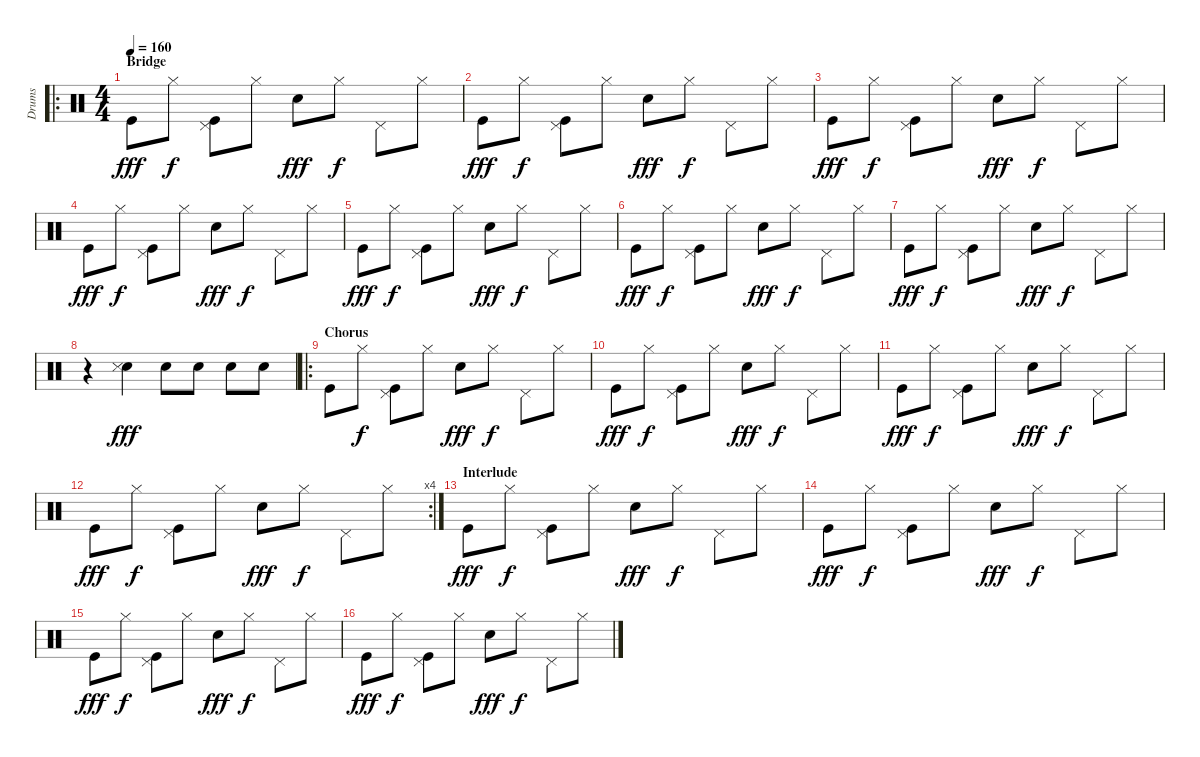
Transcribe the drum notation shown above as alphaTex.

\track ("Drums" "Drums") {instrument percussion}
\staff {score}
\articulation defaults
\ro
\ts (4 4)
\section ("" "Bridge")
\tempo 160
\clef neutral
\ks c "Kick (hit)".8{dy fff} "Hi-Hat (closed)".8{dy f}
("Kick (hit)" "Pedal Hi-Hat (hit)").8 "Hi-Hat (closed)".8 "Snare (hit) 2".8{dy fff} "Hi-Hat (closed)".8{dy f} "Pedal Hi-Hat (hit)".8 "Hi-Hat (closed)".8 |
"Kick (hit)".8{dy fff} "Hi-Hat (closed)".8{dy f} ("Kick (hit)" "Pedal Hi-Hat (hit)").8 "Hi-Hat (closed)".8 "Snare (hit) 2".8{dy fff} "Hi-Hat (closed)".8{dy f} "Pedal Hi-Hat (hit)".8 "Hi-Hat (closed)".8 |
"Kick (hit)".8{dy fff} "Hi-Hat (closed)".8{dy f} ("Kick (hit)" "Pedal Hi-Hat (hit)").8 "Hi-Hat (closed)".8 "Snare (hit) 2".8{dy fff} "Hi-Hat (closed)".8{dy f} "Pedal Hi-Hat (hit)".8 "Hi-Hat (closed)".8 |
"Kick (hit)".8{dy fff} "Hi-Hat (closed)".8{dy f} ("Kick (hit)" "Pedal Hi-Hat (hit)").8 "Hi-Hat (closed)".8 "Snare (hit) 2".8{dy fff} "Hi-Hat (closed)".8{dy f} "Pedal Hi-Hat (hit)".8 "Hi-Hat (closed)".8 |
"Kick (hit)".8{dy fff} "Hi-Hat (closed)".8{dy f} ("Kick (hit)" "Pedal Hi-Hat (hit)").8 "Hi-Hat (closed)".8 "Snare (hit) 2".8{dy fff} "Hi-Hat (closed)".8{dy f} "Pedal Hi-Hat (hit)".8 "Hi-Hat (closed)".8 |
"Kick (hit)".8{dy fff} "Hi-Hat (closed)".8{dy f} ("Kick (hit)" "Pedal Hi-Hat (hit)").8 "Hi-Hat (closed)".8 "Snare (hit) 2".8{dy fff} "Hi-Hat (closed)".8{dy f} "Pedal Hi-Hat (hit)".8 "Hi-Hat (closed)".8 |
"Kick (hit)".8{dy fff} "Hi-Hat (closed)".8{dy f} ("Kick (hit)" "Pedal Hi-Hat (hit)").8 "Hi-Hat (closed)".8 "Snare (hit) 2".8{dy fff} "Hi-Hat (closed)".8{dy f} "Pedal Hi-Hat (hit)".8 "Hi-Hat (closed)".8 |
r.4 ("Snare (hit) 2" "Snare (side stick) 3").4{dy fff} "Snare (hit) 2".8 "Snare (hit) 2".8 "Snare (hit) 2".8 "Snare (hit) 2".8 |
\ro
\section ("" "Chorus")
"Kick (hit)".8 "Hi-Hat (closed)".8{dy f} ("Kick (hit)" "Pedal Hi-Hat (hit)").8 "Hi-Hat (closed)".8 "Snare (hit) 2".8{dy fff} "Hi-Hat (closed)".8{dy f} "Pedal Hi-Hat (hit)".8 "Hi-Hat (closed)".8 |
"Kick (hit)".8{dy fff} "Hi-Hat (closed)".8{dy f} ("Kick (hit)" "Pedal Hi-Hat (hit)").8 "Hi-Hat (closed)".8 "Snare (hit) 2".8{dy fff} "Hi-Hat (closed)".8{dy f} "Pedal Hi-Hat (hit)".8 "Hi-Hat (closed)".8 |
"Kick (hit)".8{dy fff} "Hi-Hat (closed)".8{dy f} ("Kick (hit)" "Pedal Hi-Hat (hit)").8 "Hi-Hat (closed)".8 "Snare (hit) 2".8{dy fff} "Hi-Hat (closed)".8{dy f} "Pedal Hi-Hat (hit)".8 "Hi-Hat (closed)".8 |
\rc 4 "Kick (hit)".8{dy fff} "Hi-Hat (closed)".8{dy f}
("Kick (hit)" "Pedal Hi-Hat (hit)").8 "Hi-Hat (closed)".8 "Snare (hit) 2".8{dy fff} "Hi-Hat (closed)".8{dy f} "Pedal Hi-Hat (hit)".8 "Hi-Hat (closed)".8 |
\section ("" "Interlude")
"Kick (hit)".8{dy fff} "Hi-Hat (closed)".8{dy f} ("Kick (hit)" "Pedal Hi-Hat (hit)").8 "Hi-Hat (closed)".8 "Snare (hit) 2".8{dy fff} "Hi-Hat (closed)".8{dy f} "Pedal Hi-Hat (hit)".8 "Hi-Hat (closed)".8 |
"Kick (hit)".8{dy fff} "Hi-Hat (closed)".8{dy f} ("Kick (hit)" "Pedal Hi-Hat (hit)").8 "Hi-Hat (closed)".8 "Snare (hit) 2".8{dy fff} "Hi-Hat (closed)".8{dy f} "Pedal Hi-Hat (hit)".8 "Hi-Hat (closed)".8 |
"Kick (hit)".8{dy fff} "Hi-Hat (closed)".8{dy f} ("Kick (hit)" "Pedal Hi-Hat (hit)").8 "Hi-Hat (closed)".8 "Snare (hit) 2".8{dy fff} "Hi-Hat (closed)".8{dy f} "Pedal Hi-Hat (hit)".8 "Hi-Hat (closed)".8 |
"Kick (hit)".8{dy fff} "Hi-Hat (closed)".8{dy f} ("Kick (hit)" "Pedal Hi-Hat (hit)").8 "Hi-Hat (closed)".8 "Snare (hit) 2".8{dy fff} "Hi-Hat (closed)".8{dy f} "Pedal Hi-Hat (hit)".8 "Hi-Hat (closed)".8
